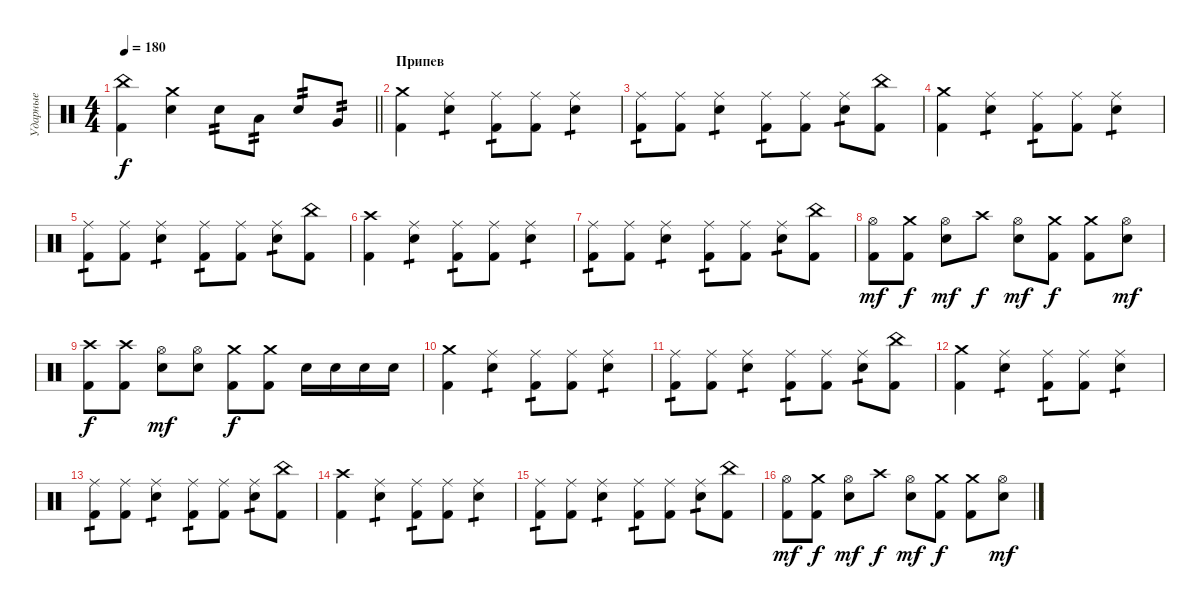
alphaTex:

\track ("Ударные" "Ударные") {instrument percussion}
\staff {score}
\articulation defaults
\ts (4 4)
\tempo 180
\clef neutral
\barLineRight lightlight
\ks c
("Kick (hit) 2" "China (hit)").4{dy f} ("Electric Snare (hit)" "Crash medium (hit)").4 "Electric Snare (hit)".8{tp 2} "Low Tom (hit)".8{tp 2} "Electric Snare (hit)".8{tp 2} "Very Low Tom (hit)".8{tp 2} |
\section ("" "Припев")
("Crash medium (hit)" "Kick (hit) 2").4 ("Electric Snare (hit)" "Ride (middle)").4{tp 1} ("Kick (hit) 2" "Ride (middle)").8{tp 1} ("Kick (hit) 2" "Ride (middle)").8 ("Electric Snare (hit)" "Ride (middle)").4{tp 1} |
("Kick (hit) 2" "Ride (middle)").8{tp 1} ("Kick (hit) 2" "Ride (middle)").8 ("Electric Snare (hit)" "Ride (middle)").4{tp 1} ("Kick (hit) 2" "Ride (middle)").8{tp 1} ("Kick (hit) 2" "Ride (middle)").8 ("Electric Snare (hit)" "Ride (middle)").8{tp 1} ("Kick (hit) 2" "China (hit)").8 |
("Crash medium (hit)" "Kick (hit) 2").4 ("Electric Snare (hit)" "Ride (middle)").4{tp 1} ("Kick (hit) 2" "Ride (middle)").8{tp 1} ("Kick (hit) 2" "Ride (middle)").8 ("Electric Snare (hit)" "Ride (middle)").4{tp 1} |
("Kick (hit) 2" "Ride (middle)").8{tp 1} ("Kick (hit) 2" "Ride (middle)").8 ("Electric Snare (hit)" "Ride (middle)").4{tp 1} ("Kick (hit) 2" "Ride (middle)").8{tp 1} ("Kick (hit) 2" "Ride (middle)").8 ("Electric Snare (hit)" "Ride (middle)").8{tp 1} ("Kick (hit) 2" "China (hit)").8 |
("Crash high (hit)" "Kick (hit) 2").4 ("Electric Snare (hit)" "Ride (middle)").4{tp 1} ("Kick (hit) 2" "Ride (middle)").8{tp 1} ("Kick (hit) 2" "Ride (middle)").8 ("Electric Snare (hit)" "Ride (middle)").4{tp 1} |
("Kick (hit) 2" "Ride (middle)").8{tp 1} ("Kick (hit) 2" "Ride (middle)").8 ("Electric Snare (hit)" "Ride (middle)").4{tp 1} ("Kick (hit) 2" "Ride (middle)").8{tp 1} ("Kick (hit) 2" "Ride (middle)").8 ("Electric Snare (hit)" "Ride (middle)").8{tp 1} ("Kick (hit) 2" "China (hit)").8 |
("Hi-Hat (open)" "Kick (hit) 2").8{dy mf} ("Crash medium (hit)" "Kick (hit) 2").8{dy f} ("Hi-Hat (open)" "Electric Snare (hit)").8{dy mf} "Crash high (hit)".8{dy f} ("Hi-Hat (open)" "Electric Snare (hit)").8{dy mf} ("Crash medium (hit)" "Kick (hit) 2").8{dy f} ("Crash medium (hit)" "Kick (hit) 2").8 ("Hi-Hat (open)" "Electric Snare (hit)").8{dy mf} |
("Crash high (hit)" "Kick (hit) 2").8{dy f} ("Crash high (hit)" "Kick (hit) 2").8 ("Hi-Hat (open)" "Electric Snare (hit)").8{dy mf} ("Hi-Hat (open)" "Electric Snare (hit)").8 ("Crash medium (hit)" "Kick (hit) 2").8{dy f} ("Crash medium (hit)" "Kick (hit) 2").8 "Electric Snare (hit)".16 "Electric Snare (hit)".16 "Electric Snare (hit)".16 "Electric Snare (hit)".16 |
("Crash medium (hit)" "Kick (hit) 2").4 ("Electric Snare (hit)" "Ride (middle)").4{tp 1} ("Kick (hit) 2" "Ride (middle)").8{tp 1} ("Kick (hit) 2" "Ride (middle)").8 ("Electric Snare (hit)" "Ride (middle)").4{tp 1} |
("Kick (hit) 2" "Ride (middle)").8{tp 1} ("Kick (hit) 2" "Ride (middle)").8 ("Electric Snare (hit)" "Ride (middle)").4{tp 1} ("Kick (hit) 2" "Ride (middle)").8{tp 1} ("Kick (hit) 2" "Ride (middle)").8 ("Electric Snare (hit)" "Ride (middle)").8{tp 1} ("Kick (hit) 2" "China (hit)").8 |
("Crash medium (hit)" "Kick (hit) 2").4 ("Electric Snare (hit)" "Ride (middle)").4{tp 1} ("Kick (hit) 2" "Ride (middle)").8{tp 1} ("Kick (hit) 2" "Ride (middle)").8 ("Electric Snare (hit)" "Ride (middle)").4{tp 1} |
("Kick (hit) 2" "Ride (middle)").8{tp 1} ("Kick (hit) 2" "Ride (middle)").8 ("Electric Snare (hit)" "Ride (middle)").4{tp 1} ("Kick (hit) 2" "Ride (middle)").8{tp 1} ("Kick (hit) 2" "Ride (middle)").8 ("Electric Snare (hit)" "Ride (middle)").8{tp 1} ("Kick (hit) 2" "China (hit)").8 |
("Crash high (hit)" "Kick (hit) 2").4 ("Electric Snare (hit)" "Ride (middle)").4{tp 1} ("Kick (hit) 2" "Ride (middle)").8{tp 1} ("Kick (hit) 2" "Ride (middle)").8 ("Electric Snare (hit)" "Ride (middle)").4{tp 1} |
("Kick (hit) 2" "Ride (middle)").8{tp 1} ("Kick (hit) 2" "Ride (middle)").8 ("Electric Snare (hit)" "Ride (middle)").4{tp 1} ("Kick (hit) 2" "Ride (middle)").8{tp 1} ("Kick (hit) 2" "Ride (middle)").8 ("Electric Snare (hit)" "Ride (middle)").8{tp 1} ("Kick (hit) 2" "China (hit)").8 |
("Hi-Hat (open)" "Kick (hit) 2").8{dy mf} ("Crash medium (hit)" "Kick (hit) 2").8{dy f} ("Hi-Hat (open)" "Electric Snare (hit)").8{dy mf} "Crash high (hit)".8{dy f} ("Hi-Hat (open)" "Electric Snare (hit)").8{dy mf} ("Crash medium (hit)" "Kick (hit) 2").8{dy f} ("Crash medium (hit)" "Kick (hit) 2").8 ("Hi-Hat (open)" "Electric Snare (hit)").8{dy mf}
